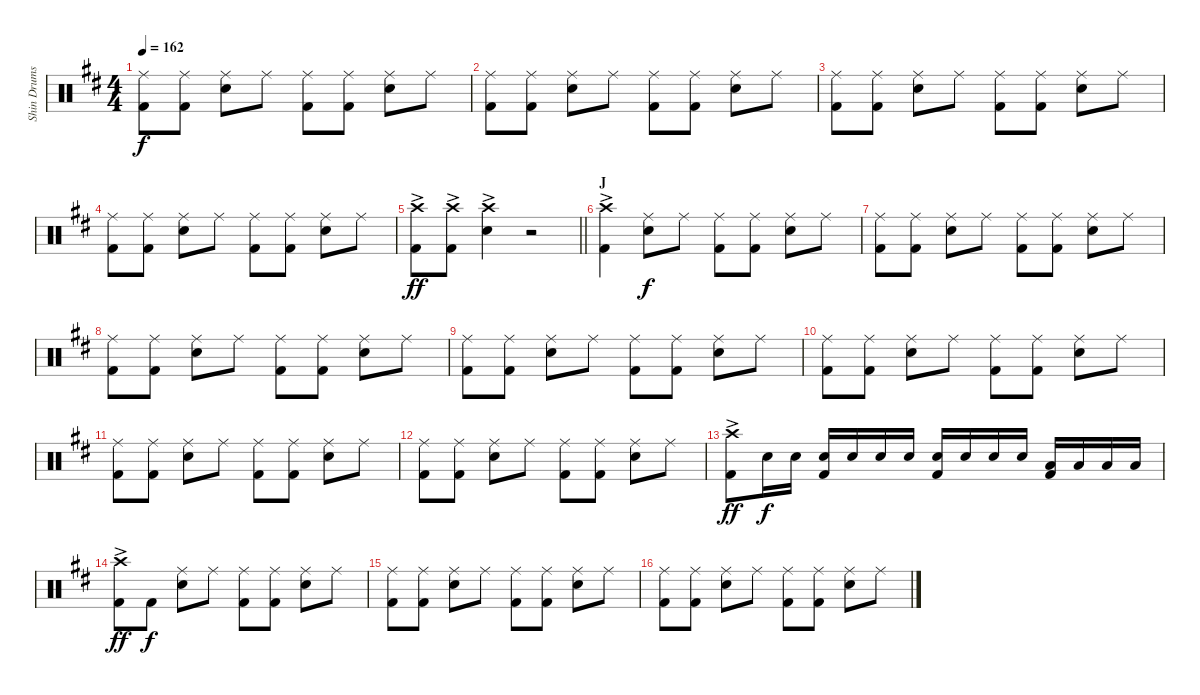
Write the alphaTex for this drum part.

\track ("Shin Drums" "Shin Drums") {instrument percussion}
\staff {score}
\articulation defaults
\ts (4 4)
\tempo 162
\clef neutral
\ks d
("Ride (middle)" "Kick (hit) 2").8{dy f} ("Ride (middle)" "Kick (hit) 2").8 ("Ride (middle)" "Snare (hit) 2").8 "Ride (middle)".8 ("Ride (middle)" "Kick (hit) 2").8 ("Ride (middle)" "Kick (hit) 2").8 ("Ride (middle)" "Snare (hit) 2").8 "Ride (middle)".8 |
("Ride (middle)" "Kick (hit) 2").8 ("Ride (middle)" "Kick (hit) 2").8 ("Ride (middle)" "Snare (hit) 2").8 "Ride (middle)".8 ("Ride (middle)" "Kick (hit) 2").8 ("Ride (middle)" "Kick (hit) 2").8 ("Ride (middle)" "Snare (hit) 2").8 "Ride (middle)".8 |
("Ride (middle)" "Kick (hit) 2").8 ("Ride (middle)" "Kick (hit) 2").8 ("Ride (middle)" "Snare (hit) 2").8 "Ride (middle)".8 ("Ride (middle)" "Kick (hit) 2").8 ("Ride (middle)" "Kick (hit) 2").8 ("Ride (middle)" "Snare (hit) 2").8 "Ride (middle)".8 |
("Ride (middle)" "Kick (hit) 2").8 ("Ride (middle)" "Kick (hit) 2").8 ("Ride (middle)" "Snare (hit) 2").8 "Ride (middle)".8 ("Ride (middle)" "Kick (hit) 2").8 ("Ride (middle)" "Kick (hit) 2").8 ("Ride (middle)" "Snare (hit) 2").8 "Ride (middle)".8 |
\barLineRight lightlight
("Crash high (hit)"{ac} "Kick (hit) 2").8{dy ff} ("Crash high (hit)"{ac} "Kick (hit) 2").8 ("Crash high (hit)"{ac} "Snare (hit) 2").4 r.2 |
\section ("" "J")
("Crash high (hit)"{ac} "Kick (hit) 2").4 ("Ride (middle)" "Snare (hit) 2").8{dy f} "Ride (middle)".8 ("Ride (middle)" "Kick (hit) 2").8 ("Ride (middle)" "Kick (hit) 2").8 ("Ride (middle)" "Snare (hit) 2").8 "Ride (middle)".8 |
("Ride (middle)" "Kick (hit) 2").8 ("Ride (middle)" "Kick (hit) 2").8 ("Ride (middle)" "Snare (hit) 2").8 "Ride (middle)".8 ("Ride (middle)" "Kick (hit) 2").8 ("Ride (middle)" "Kick (hit) 2").8 ("Ride (middle)" "Snare (hit) 2").8 "Ride (middle)".8 |
("Ride (middle)" "Kick (hit) 2").8 ("Ride (middle)" "Kick (hit) 2").8 ("Ride (middle)" "Snare (hit) 2").8 "Ride (middle)".8 ("Ride (middle)" "Kick (hit) 2").8 ("Ride (middle)" "Kick (hit) 2").8 ("Ride (middle)" "Snare (hit) 2").8 "Ride (middle)".8 |
("Ride (middle)" "Kick (hit) 2").8 ("Ride (middle)" "Kick (hit) 2").8 ("Ride (middle)" "Snare (hit) 2").8 "Ride (middle)".8 ("Ride (middle)" "Kick (hit) 2").8 ("Ride (middle)" "Kick (hit) 2").8 ("Ride (middle)" "Snare (hit) 2").8 "Ride (middle)".8 |
("Ride (middle)" "Kick (hit) 2").8 ("Ride (middle)" "Kick (hit) 2").8 ("Ride (middle)" "Snare (hit) 2").8 "Ride (middle)".8 ("Ride (middle)" "Kick (hit) 2").8 ("Ride (middle)" "Kick (hit) 2").8 ("Ride (middle)" "Snare (hit) 2").8 "Ride (middle)".8 |
("Ride (middle)" "Kick (hit) 2").8 ("Ride (middle)" "Kick (hit) 2").8 ("Ride (middle)" "Snare (hit) 2").8 "Ride (middle)".8 ("Ride (middle)" "Kick (hit) 2").8 ("Ride (middle)" "Kick (hit) 2").8 ("Ride (middle)" "Snare (hit) 2").8 "Ride (middle)".8 |
("Ride (middle)" "Kick (hit) 2").8 ("Ride (middle)" "Kick (hit) 2").8 ("Ride (middle)" "Snare (hit) 2").8 "Ride (middle)".8 ("Ride (middle)" "Kick (hit) 2").8 ("Ride (middle)" "Kick (hit) 2").8 ("Ride (middle)" "Snare (hit) 2").8 "Ride (middle)".8 |
("Crash high (hit)"{ac} "Kick (hit) 2").8{dy ff} "Snare (hit) 2".16{dy f} "Snare (hit) 2".16 ("Snare (hit) 2" "Kick (hit) 2").16 "Snare (hit) 2".16 "Snare (hit) 2".16 "Snare (hit) 2".16 ("Snare (hit) 2" "Kick (hit) 2").16 "Snare (hit) 2".16 "Snare (hit) 2".16 "Snare (hit) 2".16 ("Low Tom (hit)" "Kick (hit) 2").16 "Low Tom (hit)".16 "Low Tom (hit)".16 "Low Tom (hit)".16 |
("Crash high (hit)"{ac} "Kick (hit) 2").8{dy ff} "Kick (hit) 2".8{dy f} ("Ride (middle)" "Snare (hit) 2").8 "Ride (middle)".8 ("Ride (middle)" "Kick (hit) 2").8 ("Ride (middle)" "Kick (hit) 2").8 ("Ride (middle)" "Snare (hit) 2").8 "Ride (middle)".8 |
("Ride (middle)" "Kick (hit) 2").8 ("Ride (middle)" "Kick (hit) 2").8 ("Ride (middle)" "Snare (hit) 2").8 "Ride (middle)".8 ("Ride (middle)" "Kick (hit) 2").8 ("Ride (middle)" "Kick (hit) 2").8 ("Ride (middle)" "Snare (hit) 2").8 "Ride (middle)".8 |
("Ride (middle)" "Kick (hit) 2").8 ("Ride (middle)" "Kick (hit) 2").8 ("Ride (middle)" "Snare (hit) 2").8 "Ride (middle)".8 ("Ride (middle)" "Kick (hit) 2").8 ("Ride (middle)" "Kick (hit) 2").8 ("Ride (middle)" "Snare (hit) 2").8 "Ride (middle)".8
